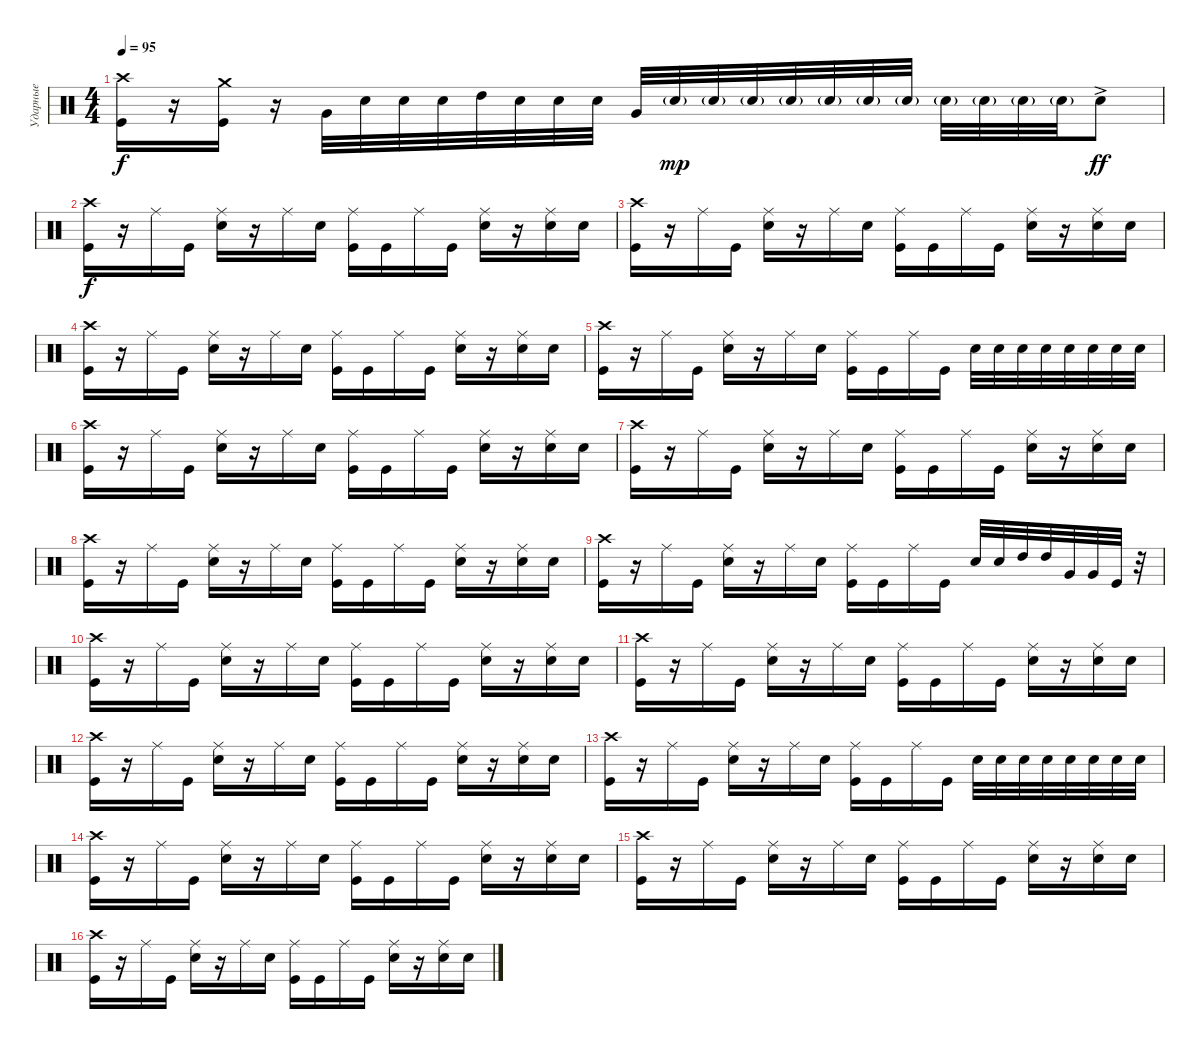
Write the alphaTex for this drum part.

\track ("Ударные" "Ударные") {instrument percussion}
\staff {score}
\articulation defaults
\ts (4 4)
\tempo 95
\clef neutral
\ks c
("Kick (hit)" "Crash high (hit)").16{dy f} r.16 ("Kick (hit)" "Crash medium (hit)").16 r.16 "Very Low Tom (hit)".32 "Snare (hit) 2".32 "Snare (hit) 2".32 "Snare (hit) 2".32 "High Tom (hit)".32 "Snare (hit) 2".32 "Snare (hit) 2".32 "Snare (hit) 2".32 "Very Low Tom (hit)".32 "Snare (hit) 2"{g}.32{dy mp} "Snare (hit) 2"{g}.32 "Snare (hit) 2"{g}.32 "Snare (hit) 2"{g}.32 "Snare (hit) 2"{g}.32 "Snare (hit) 2"{g}.32 "Snare (hit) 2"{g}.32 "Snare (hit) 2"{g}.32 "Snare (hit) 2"{g}.32 "Snare (hit) 2"{g}.32 "Snare (hit) 2"{g}.32 "Snare (hit) 2"{ac}.8{dy ff} |
("Kick (hit)" "Crash high (hit)").16{dy f} r.16 "Ride (middle)".16 "Kick (hit)".16 ("Ride (middle)" "Snare (hit) 2").16 r.16 "Ride (middle)".16 "Snare (hit) 2".16 ("Ride (middle)" "Kick (hit)").16 "Kick (hit)".16 "Ride (middle)".16 "Kick (hit)".16 ("Ride (middle)" "Snare (hit) 2").16 r.16 ("Ride (middle)" "Snare (hit) 2").16 "Snare (hit) 2".16 |
("Kick (hit)" "Crash high (hit)").16 r.16 "Ride (middle)".16 "Kick (hit)".16 ("Ride (middle)" "Snare (hit) 2").16 r.16 "Ride (middle)".16 "Snare (hit) 2".16 ("Ride (middle)" "Kick (hit)").16 "Kick (hit)".16 "Ride (middle)".16 "Kick (hit)".16 ("Ride (middle)" "Snare (hit) 2").16 r.16 ("Ride (middle)" "Snare (hit) 2").16 "Snare (hit) 2".16 |
("Kick (hit)" "Crash high (hit)").16 r.16 "Ride (middle)".16 "Kick (hit)".16 ("Ride (middle)" "Snare (hit) 2").16 r.16 "Ride (middle)".16 "Snare (hit) 2".16 ("Ride (middle)" "Kick (hit)").16 "Kick (hit)".16 "Ride (middle)".16 "Kick (hit)".16 ("Ride (middle)" "Snare (hit) 2").16 r.16 ("Ride (middle)" "Snare (hit) 2").16 "Snare (hit) 2".16 |
("Kick (hit)" "Crash high (hit)").16 r.16 "Ride (middle)".16 "Kick (hit)".16 ("Ride (middle)" "Snare (hit) 2").16 r.16 "Ride (middle)".16 "Snare (hit) 2".16 ("Ride (middle)" "Kick (hit)").16 "Kick (hit)".16 "Ride (middle)".16 "Kick (hit)".16 "Snare (hit) 2".32 "Snare (hit) 2".32 "Snare (hit) 2".32 "Snare (hit) 2".32 "Snare (hit) 2".32 "Snare (hit) 2".32 "Snare (hit) 2".32 "Snare (hit) 2".32 |
("Kick (hit)" "Crash high (hit)").16 r.16 "Ride (middle)".16 "Kick (hit)".16 ("Ride (middle)" "Snare (hit) 2").16 r.16 "Ride (middle)".16 "Snare (hit) 2".16 ("Ride (middle)" "Kick (hit)").16 "Kick (hit)".16 "Ride (middle)".16 "Kick (hit)".16 ("Ride (middle)" "Snare (hit) 2").16 r.16 ("Ride (middle)" "Snare (hit) 2").16 "Snare (hit) 2".16 |
("Kick (hit)" "Crash high (hit)").16 r.16 "Ride (middle)".16 "Kick (hit)".16 ("Ride (middle)" "Snare (hit) 2").16 r.16 "Ride (middle)".16 "Snare (hit) 2".16 ("Ride (middle)" "Kick (hit)").16 "Kick (hit)".16 "Ride (middle)".16 "Kick (hit)".16 ("Ride (middle)" "Snare (hit) 2").16 r.16 ("Ride (middle)" "Snare (hit) 2").16 "Snare (hit) 2".16 |
("Kick (hit)" "Crash high (hit)").16 r.16 "Ride (middle)".16 "Kick (hit)".16 ("Ride (middle)" "Snare (hit) 2").16 r.16 "Ride (middle)".16 "Snare (hit) 2".16 ("Ride (middle)" "Kick (hit)").16 "Kick (hit)".16 "Ride (middle)".16 "Kick (hit)".16 ("Ride (middle)" "Snare (hit) 2").16 r.16 ("Ride (middle)" "Snare (hit) 2").16 "Snare (hit) 2".16 |
("Kick (hit)" "Crash high (hit)").16 r.16 "Ride (middle)".16 "Kick (hit)".16 ("Ride (middle)" "Snare (hit) 2").16 r.16 "Ride (middle)".16 "Snare (hit) 2".16 ("Ride (middle)" "Kick (hit)").16 "Kick (hit)".16 "Ride (middle)".16 "Kick (hit)".16 "Snare (hit) 2".32 "Snare (hit) 2".32 "High Tom (hit)".32 "High Tom (hit)".32 "Very Low Tom (hit)".32 "Very Low Tom (hit)".32 "Kick (hit)".32 r.32 |
("Kick (hit)" "Crash high (hit)").16 r.16 "Ride (middle)".16 "Kick (hit)".16 ("Ride (middle)" "Snare (hit) 2").16 r.16 "Ride (middle)".16 "Snare (hit) 2".16 ("Ride (middle)" "Kick (hit)").16 "Kick (hit)".16 "Ride (middle)".16 "Kick (hit)".16 ("Ride (middle)" "Snare (hit) 2").16 r.16 ("Ride (middle)" "Snare (hit) 2").16 "Snare (hit) 2".16 |
("Kick (hit)" "Crash high (hit)").16 r.16 "Ride (middle)".16 "Kick (hit)".16 ("Ride (middle)" "Snare (hit) 2").16 r.16 "Ride (middle)".16 "Snare (hit) 2".16 ("Ride (middle)" "Kick (hit)").16 "Kick (hit)".16 "Ride (middle)".16 "Kick (hit)".16 ("Ride (middle)" "Snare (hit) 2").16 r.16 ("Ride (middle)" "Snare (hit) 2").16 "Snare (hit) 2".16 |
("Kick (hit)" "Crash high (hit)").16 r.16 "Ride (middle)".16 "Kick (hit)".16 ("Ride (middle)" "Snare (hit) 2").16 r.16 "Ride (middle)".16 "Snare (hit) 2".16 ("Ride (middle)" "Kick (hit)").16 "Kick (hit)".16 "Ride (middle)".16 "Kick (hit)".16 ("Ride (middle)" "Snare (hit) 2").16 r.16 ("Ride (middle)" "Snare (hit) 2").16 "Snare (hit) 2".16 |
("Kick (hit)" "Crash high (hit)").16 r.16 "Ride (middle)".16 "Kick (hit)".16 ("Ride (middle)" "Snare (hit) 2").16 r.16 "Ride (middle)".16 "Snare (hit) 2".16 ("Ride (middle)" "Kick (hit)").16 "Kick (hit)".16 "Ride (middle)".16 "Kick (hit)".16 "Snare (hit) 2".32 "Snare (hit) 2".32 "Snare (hit) 2".32 "Snare (hit) 2".32 "Snare (hit) 2".32 "Snare (hit) 2".32 "Snare (hit) 2".32 "Snare (hit) 2".32 |
("Kick (hit)" "Crash high (hit)").16 r.16 "Ride (middle)".16 "Kick (hit)".16 ("Ride (middle)" "Snare (hit) 2").16 r.16 "Ride (middle)".16 "Snare (hit) 2".16 ("Ride (middle)" "Kick (hit)").16 "Kick (hit)".16 "Ride (middle)".16 "Kick (hit)".16 ("Ride (middle)" "Snare (hit) 2").16 r.16 ("Ride (middle)" "Snare (hit) 2").16 "Snare (hit) 2".16 |
("Kick (hit)" "Crash high (hit)").16 r.16 "Ride (middle)".16 "Kick (hit)".16 ("Ride (middle)" "Snare (hit) 2").16 r.16 "Ride (middle)".16 "Snare (hit) 2".16 ("Ride (middle)" "Kick (hit)").16 "Kick (hit)".16 "Ride (middle)".16 "Kick (hit)".16 ("Ride (middle)" "Snare (hit) 2").16 r.16 ("Ride (middle)" "Snare (hit) 2").16 "Snare (hit) 2".16 |
("Kick (hit)" "Crash high (hit)").16 r.16 "Ride (middle)".16 "Kick (hit)".16 ("Ride (middle)" "Snare (hit) 2").16 r.16 "Ride (middle)".16 "Snare (hit) 2".16 ("Ride (middle)" "Kick (hit)").16 "Kick (hit)".16 "Ride (middle)".16 "Kick (hit)".16 ("Ride (middle)" "Snare (hit) 2").16 r.16 ("Ride (middle)" "Snare (hit) 2").16 "Snare (hit) 2".16
